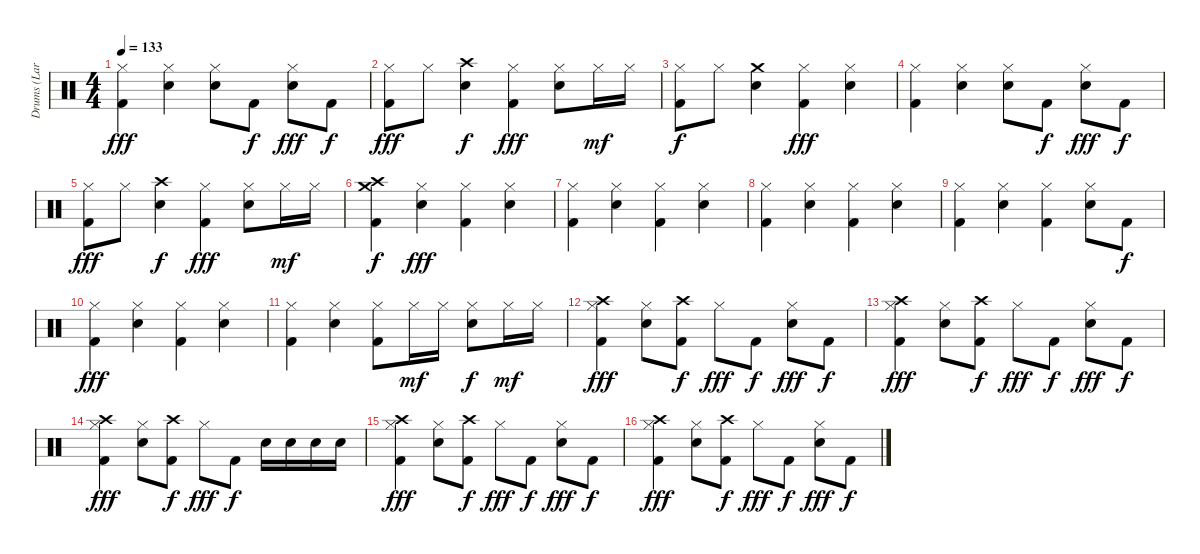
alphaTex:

\track ("Drums (Lars)" "Drums (Lar") {instrument percussion}
\staff {score}
\articulation defaults
\ts (4 4)
\tempo 133
\clef neutral
\ks c
("Hi-Hat (closed)" "Kick (hit) 2").4{dy fff} ("Hi-Hat (closed)" "Snare (hit) 2").4 ("Hi-Hat (closed)" "Snare (hit) 2").8 "Kick (hit) 2".8{dy f} ("Hi-Hat (closed)" "Snare (hit) 2").8{dy fff} "Kick (hit) 2".8{dy f} |
("Hi-Hat (closed)" "Kick (hit) 2").8{dy fff} "Hi-Hat (closed)".8 ("Crash high (hit)" "Snare (hit) 2").4{dy f} ("Hi-Hat (closed)" "Kick (hit) 2").4{dy fff} ("Hi-Hat (closed)" "Snare (hit) 2").8 "Hi-Hat (closed)".16{dy mf} "Hi-Hat (closed)".16 |
("Hi-Hat (closed)" "Kick (hit) 2").8{dy f} "Hi-Hat (closed)".8 ("Crash medium (hit)" "Snare (hit) 2").4 ("Hi-Hat (closed)" "Kick (hit) 2").4{dy fff} ("Hi-Hat (closed)" "Snare (hit) 2").4 |
("Hi-Hat (closed)" "Kick (hit) 2").4 ("Hi-Hat (closed)" "Snare (hit) 2").4 ("Hi-Hat (closed)" "Snare (hit) 2").8 "Kick (hit) 2".8{dy f} ("Hi-Hat (closed)" "Snare (hit) 2").8{dy fff} "Kick (hit) 2".8{dy f} |
("Hi-Hat (closed)" "Kick (hit) 2").8{dy fff} "Hi-Hat (closed)".8 ("Crash high (hit)" "Snare (hit) 2").4{dy f} ("Hi-Hat (closed)" "Kick (hit) 2").4{dy fff} ("Hi-Hat (closed)" "Snare (hit) 2").8 "Hi-Hat (closed)".16{dy mf} "Hi-Hat (closed)".16 |
("Crash high (hit)" "Crash medium (hit)" "Kick (hit) 2").4{dy f} ("Hi-Hat (closed)" "Snare (hit) 2").4{dy fff} ("Hi-Hat (closed)" "Kick (hit) 2").4 ("Hi-Hat (closed)" "Snare (hit) 2").4 |
("Hi-Hat (closed)" "Kick (hit) 2").4 ("Hi-Hat (closed)" "Snare (hit) 2").4 ("Hi-Hat (closed)" "Kick (hit) 2").4 ("Hi-Hat (closed)" "Snare (hit) 2").4 |
("Hi-Hat (closed)" "Kick (hit) 2").4 ("Hi-Hat (closed)" "Snare (hit) 2").4 ("Hi-Hat (closed)" "Kick (hit) 2").4 ("Hi-Hat (closed)" "Snare (hit) 2").4 |
("Hi-Hat (closed)" "Kick (hit) 2").4 ("Hi-Hat (closed)" "Snare (hit) 2").4 ("Hi-Hat (closed)" "Kick (hit) 2").4 ("Hi-Hat (closed)" "Snare (hit) 2").8 "Kick (hit) 2".8{dy f} |
("Hi-Hat (closed)" "Kick (hit) 2").4{dy fff} ("Hi-Hat (closed)" "Snare (hit) 2").4 ("Hi-Hat (closed)" "Kick (hit) 2").4 ("Hi-Hat (closed)" "Snare (hit) 2").4 |
("Hi-Hat (closed)" "Kick (hit) 2").4 ("Hi-Hat (closed)" "Snare (hit) 2").4 ("Hi-Hat (closed)" "Kick (hit) 2").8 "Hi-Hat (closed)".16{dy mf} "Hi-Hat (closed)".16 ("Hi-Hat (closed)" "Snare (hit) 2").8{dy f} "Hi-Hat (closed)".16{dy mf} "Hi-Hat (closed)".16 |
("Crash high (hit)" "Hi-Hat (closed)" "Kick (hit) 2").4{dy fff} ("Hi-Hat (closed)" "Snare (hit) 2").8 ("Crash high (hit)" "Kick (hit) 2").8{dy f} "Hi-Hat (closed)".8{dy fff} "Kick (hit) 2".8{dy f} ("Hi-Hat (closed)" "Snare (hit) 2").8{dy fff} "Kick (hit) 2".8{dy f} |
("Crash high (hit)" "Hi-Hat (closed)" "Kick (hit) 2").4{dy fff} ("Hi-Hat (closed)" "Snare (hit) 2").8 ("Crash high (hit)" "Kick (hit) 2").8{dy f} "Hi-Hat (closed)".8{dy fff} "Kick (hit) 2".8{dy f} ("Hi-Hat (closed)" "Snare (hit) 2").8{dy fff} "Kick (hit) 2".8{dy f} |
("Crash high (hit)" "Hi-Hat (closed)" "Kick (hit) 2").4{dy fff} ("Hi-Hat (closed)" "Snare (hit) 2").8 ("Crash high (hit)" "Kick (hit) 2").8{dy f} "Hi-Hat (closed)".8{dy fff} "Kick (hit) 2".8{dy f} "Snare (hit) 2".16 "Snare (hit) 2".16 "Snare (hit) 2".16 "Snare (hit) 2".16 |
("Crash high (hit)" "Hi-Hat (closed)" "Kick (hit) 2").4{dy fff} ("Hi-Hat (closed)" "Snare (hit) 2").8 ("Crash high (hit)" "Kick (hit) 2").8{dy f} "Hi-Hat (closed)".8{dy fff} "Kick (hit) 2".8{dy f} ("Hi-Hat (closed)" "Snare (hit) 2").8{dy fff} "Kick (hit) 2".8{dy f} |
("Crash high (hit)" "Hi-Hat (closed)" "Kick (hit) 2").4{dy fff} ("Hi-Hat (closed)" "Snare (hit) 2").8 ("Crash high (hit)" "Kick (hit) 2").8{dy f} "Hi-Hat (closed)".8{dy fff} "Kick (hit) 2".8{dy f} ("Hi-Hat (closed)" "Snare (hit) 2").8{dy fff} "Kick (hit) 2".8{dy f}
